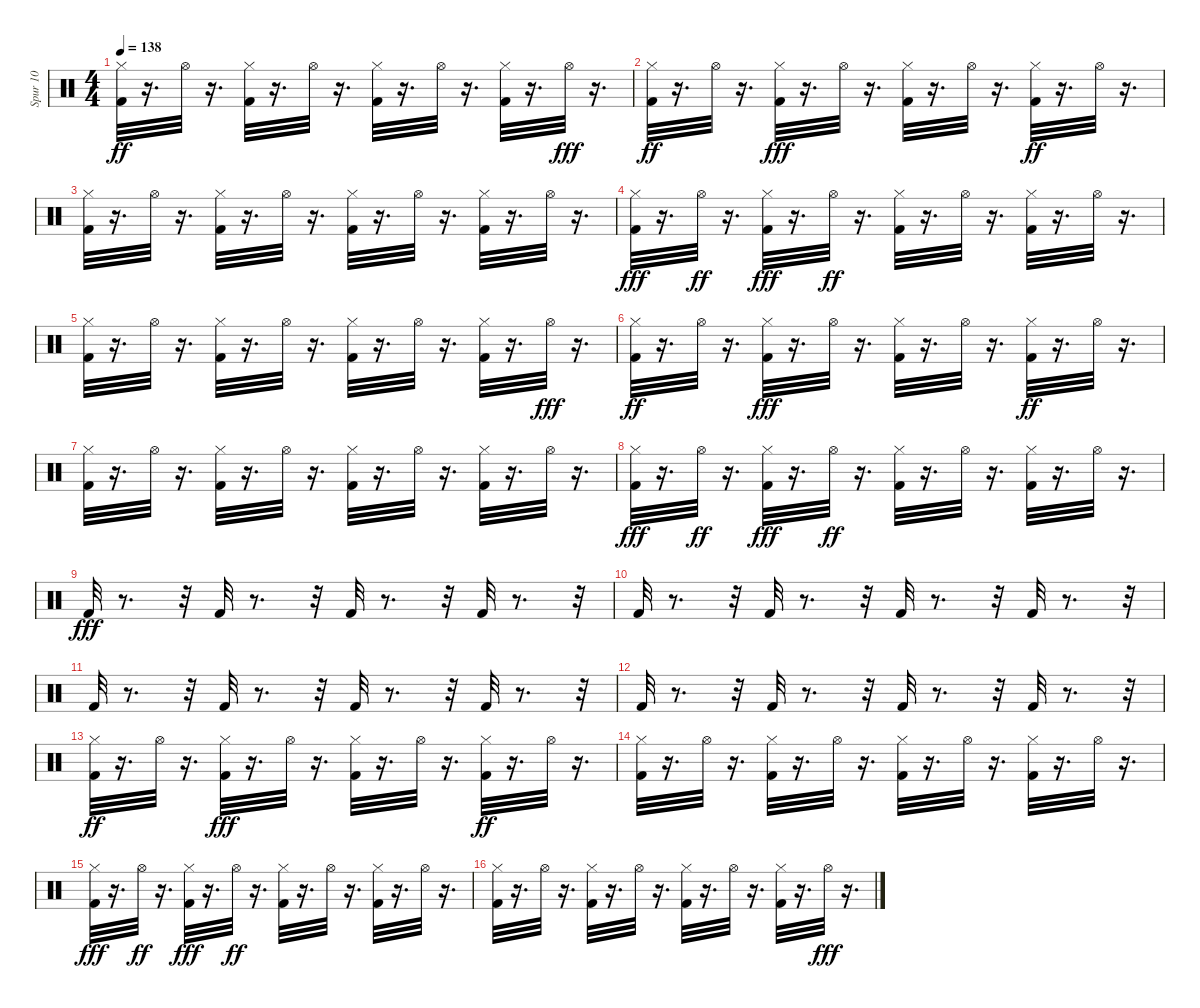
\track ("Spur 10" "Spur 10") {instrument percussion}
\staff {score}
\articulation defaults
\ts (4 4)
\tempo 138
\clef neutral
\ks c
("Kick (hit) 2" "Hi-Hat (closed)").32{dy ff} r.16{d} "Hi-Hat (open)".32 r.16{d} ("Kick (hit) 2" "Hi-Hat (closed)").32 r.16{d} "Hi-Hat (open)".32 r.16{d} ("Kick (hit) 2" "Hi-Hat (closed)").32 r.16{d} "Hi-Hat (open)".32 r.16{d} ("Kick (hit) 2" "Hi-Hat (closed)").32 r.16{d} "Hi-Hat (open)".32{dy fff} r.16{d} |
("Kick (hit) 2" "Hi-Hat (closed)").32{dy ff} r.16{d} "Hi-Hat (open)".32 r.16{d} ("Kick (hit) 2" "Hi-Hat (closed)").32{dy fff} r.16{d} "Hi-Hat (open)".32 r.16{d} ("Kick (hit) 2" "Hi-Hat (closed)").32 r.16{d} "Hi-Hat (open)".32 r.16{d} ("Kick (hit) 2" "Hi-Hat (closed)").32{dy ff} r.16{d} "Hi-Hat (open)".32 r.16{d} |
("Kick (hit) 2" "Hi-Hat (closed)").32 r.16{d} "Hi-Hat (open)".32 r.16{d} ("Kick (hit) 2" "Hi-Hat (closed)").32 r.16{d} "Hi-Hat (open)".32 r.16{d} ("Kick (hit) 2" "Hi-Hat (closed)").32 r.16{d} "Hi-Hat (open)".32 r.16{d} ("Kick (hit) 2" "Hi-Hat (closed)").32 r.16{d} "Hi-Hat (open)".32 r.16{d} |
("Kick (hit) 2" "Hi-Hat (closed)").32{dy fff} r.16{d} "Hi-Hat (open)".32{dy ff} r.16{d} ("Kick (hit) 2" "Hi-Hat (closed)").32{dy fff} r.16{d} "Hi-Hat (open)".32{dy ff} r.16{d} ("Kick (hit) 2" "Hi-Hat (closed)").32 r.16{d} "Hi-Hat (open)".32 r.16{d} ("Kick (hit) 2" "Hi-Hat (closed)").32 r.16{d} "Hi-Hat (open)".32 r.16{d} |
("Kick (hit) 2" "Hi-Hat (closed)").32 r.16{d} "Hi-Hat (open)".32 r.16{d} ("Kick (hit) 2" "Hi-Hat (closed)").32 r.16{d} "Hi-Hat (open)".32 r.16{d} ("Kick (hit) 2" "Hi-Hat (closed)").32 r.16{d} "Hi-Hat (open)".32 r.16{d} ("Kick (hit) 2" "Hi-Hat (closed)").32 r.16{d} "Hi-Hat (open)".32{dy fff} r.16{d} |
("Kick (hit) 2" "Hi-Hat (closed)").32{dy ff} r.16{d} "Hi-Hat (open)".32 r.16{d} ("Kick (hit) 2" "Hi-Hat (closed)").32{dy fff} r.16{d} "Hi-Hat (open)".32 r.16{d} ("Kick (hit) 2" "Hi-Hat (closed)").32 r.16{d} "Hi-Hat (open)".32 r.16{d} ("Kick (hit) 2" "Hi-Hat (closed)").32{dy ff} r.16{d} "Hi-Hat (open)".32 r.16{d} |
("Kick (hit) 2" "Hi-Hat (closed)").32 r.16{d} "Hi-Hat (open)".32 r.16{d} ("Kick (hit) 2" "Hi-Hat (closed)").32 r.16{d} "Hi-Hat (open)".32 r.16{d} ("Kick (hit) 2" "Hi-Hat (closed)").32 r.16{d} "Hi-Hat (open)".32 r.16{d} ("Kick (hit) 2" "Hi-Hat (closed)").32 r.16{d} "Hi-Hat (open)".32 r.16{d} |
("Kick (hit) 2" "Hi-Hat (closed)").32{dy fff} r.16{d} "Hi-Hat (open)".32{dy ff} r.16{d} ("Kick (hit) 2" "Hi-Hat (closed)").32{dy fff} r.16{d} "Hi-Hat (open)".32{dy ff} r.16{d} ("Kick (hit) 2" "Hi-Hat (closed)").32 r.16{d} "Hi-Hat (open)".32 r.16{d} ("Kick (hit) 2" "Hi-Hat (closed)").32 r.16{d} "Hi-Hat (open)".32 r.16{d} |
"Kick (hit) 2".32{dy fff} r.8{d} r.32 "Kick (hit) 2".32 r.8{d} r.32 "Kick (hit) 2".32 r.8{d} r.32 "Kick (hit) 2".32 r.8{d} r.32 |
"Kick (hit) 2".32 r.8{d} r.32 "Kick (hit) 2".32 r.8{d} r.32 "Kick (hit) 2".32 r.8{d} r.32 "Kick (hit) 2".32 r.8{d} r.32 |
"Kick (hit) 2".32 r.8{d} r.32 "Kick (hit) 2".32 r.8{d} r.32 "Kick (hit) 2".32 r.8{d} r.32 "Kick (hit) 2".32 r.8{d} r.32 |
"Kick (hit) 2".32 r.8{d} r.32 "Kick (hit) 2".32 r.8{d} r.32 "Kick (hit) 2".32 r.8{d} r.32 "Kick (hit) 2".32 r.8{d} r.32 |
("Kick (hit) 2" "Hi-Hat (closed)").32{dy ff} r.16{d} "Hi-Hat (open)".32 r.16{d} ("Kick (hit) 2" "Hi-Hat (closed)").32{dy fff} r.16{d} "Hi-Hat (open)".32 r.16{d} ("Kick (hit) 2" "Hi-Hat (closed)").32 r.16{d} "Hi-Hat (open)".32 r.16{d} ("Kick (hit) 2" "Hi-Hat (closed)").32{dy ff} r.16{d} "Hi-Hat (open)".32 r.16{d} |
("Kick (hit) 2" "Hi-Hat (closed)").32 r.16{d} "Hi-Hat (open)".32 r.16{d} ("Kick (hit) 2" "Hi-Hat (closed)").32 r.16{d} "Hi-Hat (open)".32 r.16{d} ("Kick (hit) 2" "Hi-Hat (closed)").32 r.16{d} "Hi-Hat (open)".32 r.16{d} ("Kick (hit) 2" "Hi-Hat (closed)").32 r.16{d} "Hi-Hat (open)".32 r.16{d} |
("Kick (hit) 2" "Hi-Hat (closed)").32{dy fff} r.16{d} "Hi-Hat (open)".32{dy ff} r.16{d} ("Kick (hit) 2" "Hi-Hat (closed)").32{dy fff} r.16{d} "Hi-Hat (open)".32{dy ff} r.16{d} ("Kick (hit) 2" "Hi-Hat (closed)").32 r.16{d} "Hi-Hat (open)".32 r.16{d} ("Kick (hit) 2" "Hi-Hat (closed)").32 r.16{d} "Hi-Hat (open)".32 r.16{d} |
("Kick (hit) 2" "Hi-Hat (closed)").32 r.16{d} "Hi-Hat (open)".32 r.16{d} ("Kick (hit) 2" "Hi-Hat (closed)").32 r.16{d} "Hi-Hat (open)".32 r.16{d} ("Kick (hit) 2" "Hi-Hat (closed)").32 r.16{d} "Hi-Hat (open)".32 r.16{d} ("Kick (hit) 2" "Hi-Hat (closed)").32 r.16{d} "Hi-Hat (open)".32{dy fff} r.16{d}
